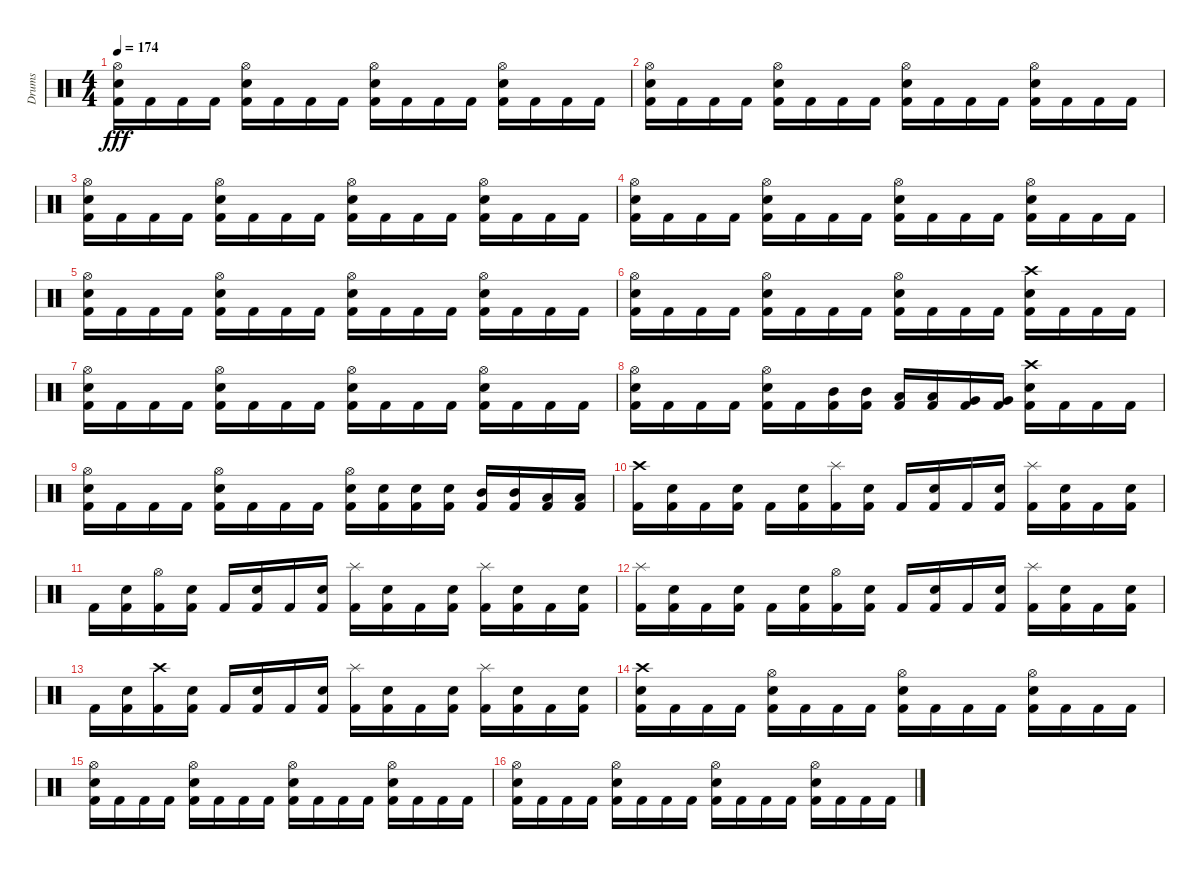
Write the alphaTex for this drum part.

\track ("Drums" "Drums") {instrument percussion}
\staff {score}
\articulation defaults
\ts (4 4)
\tempo 174
\clef neutral
\ks c
("Hi-Hat (open)" "Snare (hit) 2" "Kick (hit) 2").16{dy fff} "Kick (hit) 2".16 "Kick (hit) 2".16 "Kick (hit) 2".16 ("Hi-Hat (open)" "Snare (hit) 2" "Kick (hit) 2").16 "Kick (hit) 2".16 "Kick (hit) 2".16 "Kick (hit) 2".16 ("Hi-Hat (open)" "Snare (hit) 2" "Kick (hit) 2").16 "Kick (hit) 2".16 "Kick (hit) 2".16 "Kick (hit) 2".16 ("Hi-Hat (open)" "Snare (hit) 2" "Kick (hit) 2").16 "Kick (hit) 2".16 "Kick (hit) 2".16 "Kick (hit) 2".16 |
("Hi-Hat (open)" "Snare (hit) 2" "Kick (hit) 2").16 "Kick (hit) 2".16 "Kick (hit) 2".16 "Kick (hit) 2".16 ("Hi-Hat (open)" "Snare (hit) 2" "Kick (hit) 2").16 "Kick (hit) 2".16 "Kick (hit) 2".16 "Kick (hit) 2".16 ("Hi-Hat (open)" "Snare (hit) 2" "Kick (hit) 2").16 "Kick (hit) 2".16 "Kick (hit) 2".16 "Kick (hit) 2".16 ("Hi-Hat (open)" "Snare (hit) 2" "Kick (hit) 2").16 "Kick (hit) 2".16 "Kick (hit) 2".16 "Kick (hit) 2".16 |
("Hi-Hat (open)" "Snare (hit) 2" "Kick (hit) 2").16 "Kick (hit) 2".16 "Kick (hit) 2".16 "Kick (hit) 2".16 ("Hi-Hat (open)" "Snare (hit) 2" "Kick (hit) 2").16 "Kick (hit) 2".16 "Kick (hit) 2".16 "Kick (hit) 2".16 ("Hi-Hat (open)" "Snare (hit) 2" "Kick (hit) 2").16 "Kick (hit) 2".16 "Kick (hit) 2".16 "Kick (hit) 2".16 ("Hi-Hat (open)" "Snare (hit) 2" "Kick (hit) 2").16 "Kick (hit) 2".16 "Kick (hit) 2".16 "Kick (hit) 2".16 |
("Hi-Hat (open)" "Snare (hit) 2" "Kick (hit) 2").16 "Kick (hit) 2".16 "Kick (hit) 2".16 "Kick (hit) 2".16 ("Hi-Hat (open)" "Snare (hit) 2" "Kick (hit) 2").16 "Kick (hit) 2".16 "Kick (hit) 2".16 "Kick (hit) 2".16 ("Hi-Hat (open)" "Snare (hit) 2" "Kick (hit) 2").16 "Kick (hit) 2".16 "Kick (hit) 2".16 "Kick (hit) 2".16 ("Hi-Hat (open)" "Snare (hit) 2" "Kick (hit) 2").16 "Kick (hit) 2".16 "Kick (hit) 2".16 "Kick (hit) 2".16 |
("Hi-Hat (open)" "Snare (hit) 2" "Kick (hit) 2").16 "Kick (hit) 2".16 "Kick (hit) 2".16 "Kick (hit) 2".16 ("Hi-Hat (open)" "Snare (hit) 2" "Kick (hit) 2").16 "Kick (hit) 2".16 "Kick (hit) 2".16 "Kick (hit) 2".16 ("Hi-Hat (open)" "Snare (hit) 2" "Kick (hit) 2").16 "Kick (hit) 2".16 "Kick (hit) 2".16 "Kick (hit) 2".16 ("Hi-Hat (open)" "Snare (hit) 2" "Kick (hit) 2").16 "Kick (hit) 2".16 "Kick (hit) 2".16 "Kick (hit) 2".16 |
("Hi-Hat (open)" "Snare (hit) 2" "Kick (hit) 2").16 "Kick (hit) 2".16 "Kick (hit) 2".16 "Kick (hit) 2".16 ("Hi-Hat (open)" "Snare (hit) 2" "Kick (hit) 2").16 "Kick (hit) 2".16 "Kick (hit) 2".16 "Kick (hit) 2".16 ("Hi-Hat (open)" "Snare (hit) 2" "Kick (hit) 2").16 "Kick (hit) 2".16 "Kick (hit) 2".16 "Kick (hit) 2".16 ("Crash high (hit)" "Snare (hit) 2" "Kick (hit) 2").16 "Kick (hit) 2".16 "Kick (hit) 2".16 "Kick (hit) 2".16 |
("Hi-Hat (open)" "Snare (hit) 2" "Kick (hit) 2").16 "Kick (hit) 2".16 "Kick (hit) 2".16 "Kick (hit) 2".16 ("Hi-Hat (open)" "Snare (hit) 2" "Kick (hit) 2").16 "Kick (hit) 2".16 "Kick (hit) 2".16 "Kick (hit) 2".16 ("Hi-Hat (open)" "Snare (hit) 2" "Kick (hit) 2").16 "Kick (hit) 2".16 "Kick (hit) 2".16 "Kick (hit) 2".16 ("Hi-Hat (open)" "Snare (hit) 2" "Kick (hit) 2").16 "Kick (hit) 2".16 "Kick (hit) 2".16 "Kick (hit) 2".16 |
("Hi-Hat (open)" "Snare (hit) 2" "Kick (hit) 2").16 "Kick (hit) 2".16 "Kick (hit) 2".16 "Kick (hit) 2".16 ("Hi-Hat (open)" "Snare (hit) 2" "Kick (hit) 2").16 "Kick (hit) 2".16 ("Mid Tom (hit)" "Kick (hit) 2").16 ("Mid Tom (hit)" "Kick (hit) 2").16 ("Low Tom (hit)" "Kick (hit) 2").16 ("Low Tom (hit)" "Kick (hit) 2").16 ("Very Low Tom (hit)" "Kick (hit) 2").16 ("Very Low Tom (hit)" "Kick (hit) 2").16 ("Crash high (hit)" "Snare (hit) 2" "Kick (hit) 2").16 "Kick (hit) 2".16 "Kick (hit) 2".16 "Kick (hit) 2".16 |
("Hi-Hat (open)" "Snare (hit) 2" "Kick (hit) 2").16 "Kick (hit) 2".16 "Kick (hit) 2".16 "Kick (hit) 2".16 ("Hi-Hat (open)" "Snare (hit) 2" "Kick (hit) 2").16 "Kick (hit) 2".16 "Kick (hit) 2".16 "Kick (hit) 2".16 ("Hi-Hat (open)" "Snare (hit) 2" "Kick (hit) 2").16 ("Snare (hit) 2" "Kick (hit) 2").16 ("Snare (hit) 2" "Kick (hit) 2").16 ("Snare (hit) 2" "Kick (hit) 2").16 ("Mid Tom (hit)" "Kick (hit) 2").16 ("Mid Tom (hit)" "Kick (hit) 2").16 ("Low Tom (hit)" "Kick (hit) 2").16 ("Low Tom (hit)" "Kick (hit) 2").16 |
("Crash high (hit)" "Kick (hit) 2").16 ("Snare (hit) 2" "Kick (hit) 2").16 "Kick (hit) 2".16 ("Snare (hit) 2" "Kick (hit) 2").16 "Kick (hit) 2".16 ("Snare (hit) 2" "Kick (hit) 2").16 ("Splash (hit)" "Kick (hit) 2").16 ("Snare (hit) 2" "Kick (hit) 2").16 "Kick (hit) 2".16 ("Snare (hit) 2" "Kick (hit) 2").16 "Kick (hit) 2".16 ("Snare (hit) 2" "Kick (hit) 2").16 ("Splash (hit)" "Kick (hit) 2").16 ("Snare (hit) 2" "Kick (hit) 2").16 "Kick (hit) 2".16 ("Snare (hit) 2" "Kick (hit) 2").16 |
"Kick (hit) 2".16 ("Snare (hit) 2" "Kick (hit) 2").16 ("Hi-Hat (open)" "Kick (hit) 2").16 ("Snare (hit) 2" "Kick (hit) 2").16 "Kick (hit) 2".16 ("Snare (hit) 2" "Kick (hit) 2").16 "Kick (hit) 2".16 ("Snare (hit) 2" "Kick (hit) 2").16 ("Splash (hit)" "Kick (hit) 2").16 ("Snare (hit) 2" "Kick (hit) 2").16 "Kick (hit) 2".16 ("Snare (hit) 2" "Kick (hit) 2").16 ("Splash (hit)" "Kick (hit) 2").16 ("Snare (hit) 2" "Kick (hit) 2").16 "Kick (hit) 2".16 ("Snare (hit) 2" "Kick (hit) 2").16 |
("Splash (hit)" "Kick (hit) 2").16 ("Snare (hit) 2" "Kick (hit) 2").16 "Kick (hit) 2".16 ("Snare (hit) 2" "Kick (hit) 2").16 "Kick (hit) 2".16 ("Snare (hit) 2" "Kick (hit) 2").16 ("Hi-Hat (open)" "Kick (hit) 2").16 ("Snare (hit) 2" "Kick (hit) 2").16 "Kick (hit) 2".16 ("Snare (hit) 2" "Kick (hit) 2").16 "Kick (hit) 2".16 ("Snare (hit) 2" "Kick (hit) 2").16 ("Splash (hit)" "Kick (hit) 2").16 ("Snare (hit) 2" "Kick (hit) 2").16 "Kick (hit) 2".16 ("Snare (hit) 2" "Kick (hit) 2").16 |
"Kick (hit) 2".16 ("Snare (hit) 2" "Kick (hit) 2").16 ("Crash high (hit)" "Kick (hit) 2").16 ("Snare (hit) 2" "Kick (hit) 2").16 "Kick (hit) 2".16 ("Snare (hit) 2" "Kick (hit) 2").16 "Kick (hit) 2".16 ("Snare (hit) 2" "Kick (hit) 2").16 ("Splash (hit)" "Kick (hit) 2").16 ("Snare (hit) 2" "Kick (hit) 2").16 "Kick (hit) 2".16 ("Snare (hit) 2" "Kick (hit) 2").16 ("Splash (hit)" "Kick (hit) 2").16 ("Snare (hit) 2" "Kick (hit) 2").16 "Kick (hit) 2".16 ("Snare (hit) 2" "Kick (hit) 2").16 |
("Crash high (hit)" "Snare (hit) 2" "Kick (hit) 2").16 "Kick (hit) 2".16 "Kick (hit) 2".16 "Kick (hit) 2".16 ("Hi-Hat (open)" "Snare (hit) 2" "Kick (hit) 2").16 "Kick (hit) 2".16 "Kick (hit) 2".16 "Kick (hit) 2".16 ("Hi-Hat (open)" "Snare (hit) 2" "Kick (hit) 2").16 "Kick (hit) 2".16 "Kick (hit) 2".16 "Kick (hit) 2".16 ("Hi-Hat (open)" "Snare (hit) 2" "Kick (hit) 2").16 "Kick (hit) 2".16 "Kick (hit) 2".16 "Kick (hit) 2".16 |
("Hi-Hat (open)" "Snare (hit) 2" "Kick (hit) 2").16 "Kick (hit) 2".16 "Kick (hit) 2".16 "Kick (hit) 2".16 ("Hi-Hat (open)" "Snare (hit) 2" "Kick (hit) 2").16 "Kick (hit) 2".16 "Kick (hit) 2".16 "Kick (hit) 2".16 ("Hi-Hat (open)" "Snare (hit) 2" "Kick (hit) 2").16 "Kick (hit) 2".16 "Kick (hit) 2".16 "Kick (hit) 2".16 ("Hi-Hat (open)" "Snare (hit) 2" "Kick (hit) 2").16 "Kick (hit) 2".16 "Kick (hit) 2".16 "Kick (hit) 2".16 |
("Hi-Hat (open)" "Snare (hit) 2" "Kick (hit) 2").16 "Kick (hit) 2".16 "Kick (hit) 2".16 "Kick (hit) 2".16 ("Hi-Hat (open)" "Snare (hit) 2" "Kick (hit) 2").16 "Kick (hit) 2".16 "Kick (hit) 2".16 "Kick (hit) 2".16 ("Hi-Hat (open)" "Snare (hit) 2" "Kick (hit) 2").16 "Kick (hit) 2".16 "Kick (hit) 2".16 "Kick (hit) 2".16 ("Hi-Hat (open)" "Snare (hit) 2" "Kick (hit) 2").16 "Kick (hit) 2".16 "Kick (hit) 2".16 "Kick (hit) 2".16
